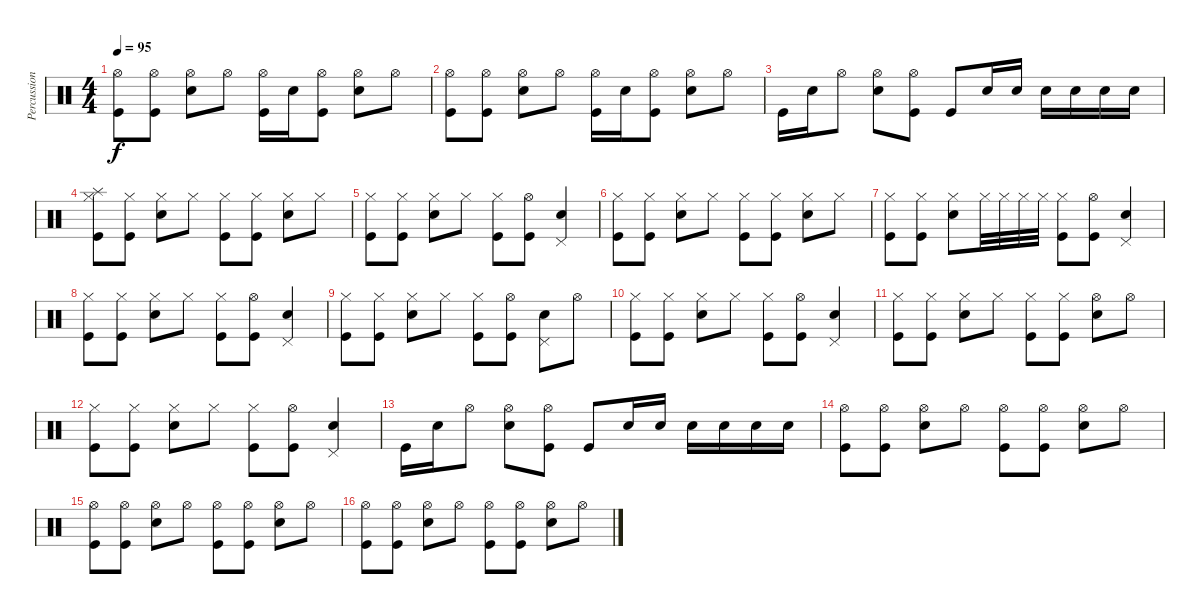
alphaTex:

\track ("Percussion" "Percussion") {instrument percussion}
\staff {score}
\articulation defaults
\ts (4 4)
\tempo 95
\clef neutral
\ks c
("Hi-Hat (open)" "Kick (hit)").8{dy f} ("Hi-Hat (open)" "Kick (hit)").8 ("Hi-Hat (open)" "Snare (hit) 2").8 "Hi-Hat (open)".8 ("Hi-Hat (open)" "Kick (hit)").16 "Snare (hit) 2".16 ("Hi-Hat (open)" "Kick (hit)").8 ("Hi-Hat (open)" "Snare (hit) 2").8 "Hi-Hat (open)".8 |
("Hi-Hat (open)" "Kick (hit)").8 ("Hi-Hat (open)" "Kick (hit)").8 ("Hi-Hat (open)" "Snare (hit) 2").8 "Hi-Hat (open)".8 ("Hi-Hat (open)" "Kick (hit)").16 "Snare (hit) 2".16 ("Hi-Hat (open)" "Kick (hit)").8 ("Hi-Hat (open)" "Snare (hit) 2").8 "Hi-Hat (open)".8 |
"Kick (hit)".16 "Snare (hit) 2".16 "Hi-Hat (open)".8 ("Hi-Hat (open)" "Snare (hit) 2").8 ("Hi-Hat (open)" "Kick (hit)").8 "Kick (hit)".8 "Snare (hit) 2".16 "Snare (hit) 2".16 "Snare (hit) 2".16 "Snare (hit) 2".16 "Snare (hit) 2".16 "Snare (hit) 2".16 |
("Splash (hit)" "Hi-Hat (closed)" "Kick (hit)").8 ("Hi-Hat (closed)" "Kick (hit)").8 ("Hi-Hat (closed)" "Snare (hit) 2").8 "Hi-Hat (closed)".8 ("Hi-Hat (closed)" "Kick (hit)").8 ("Hi-Hat (closed)" "Kick (hit)").8 ("Hi-Hat (closed)" "Snare (hit) 2").8 "Hi-Hat (closed)".8 |
("Hi-Hat (closed)" "Kick (hit)").8 ("Hi-Hat (closed)" "Kick (hit)").8 ("Hi-Hat (closed)" "Snare (hit) 2").8 "Hi-Hat (closed)".8 ("Hi-Hat (closed)" "Kick (hit)").8 ("Hi-Hat (open)" "Kick (hit)").8 ("Pedal Hi-Hat (hit)" "Snare (hit) 2").4 |
("Hi-Hat (closed)" "Kick (hit)").8 ("Hi-Hat (closed)" "Kick (hit)").8 ("Hi-Hat (closed)" "Snare (hit) 2").8 "Hi-Hat (closed)".8 ("Hi-Hat (closed)" "Kick (hit)").8 ("Hi-Hat (closed)" "Kick (hit)").8 ("Hi-Hat (closed)" "Snare (hit) 2").8 "Hi-Hat (closed)".8 |
("Hi-Hat (closed)" "Kick (hit)").8 ("Hi-Hat (closed)" "Kick (hit)").8 ("Hi-Hat (closed)" "Snare (hit) 2").8 "Hi-Hat (closed)".32 "Hi-Hat (closed)".32 "Hi-Hat (closed)".32 "Hi-Hat (closed)".32 ("Hi-Hat (closed)" "Kick (hit)").8 ("Hi-Hat (open)" "Kick (hit)").8 ("Pedal Hi-Hat (hit)" "Snare (hit) 2").4 |
("Hi-Hat (closed)" "Kick (hit)").8 ("Hi-Hat (closed)" "Kick (hit)").8 ("Hi-Hat (closed)" "Snare (hit) 2").8 "Hi-Hat (closed)".8 ("Hi-Hat (closed)" "Kick (hit)").8 ("Hi-Hat (open)" "Kick (hit)").8 ("Pedal Hi-Hat (hit)" "Snare (hit) 2").4 |
("Hi-Hat (closed)" "Kick (hit)").8 ("Hi-Hat (closed)" "Kick (hit)").8 ("Hi-Hat (closed)" "Snare (hit) 2").8 "Hi-Hat (closed)".8 ("Hi-Hat (closed)" "Kick (hit)").8 ("Hi-Hat (open)" "Kick (hit)").8 ("Pedal Hi-Hat (hit)" "Snare (hit) 2").8 "Hi-Hat (open)".8 |
("Hi-Hat (closed)" "Kick (hit)").8 ("Hi-Hat (closed)" "Kick (hit)").8 ("Hi-Hat (closed)" "Snare (hit) 2").8 "Hi-Hat (closed)".8 ("Hi-Hat (closed)" "Kick (hit)").8 ("Hi-Hat (open)" "Kick (hit)").8 ("Pedal Hi-Hat (hit)" "Snare (hit) 2").4 |
("Hi-Hat (closed)" "Kick (hit)").8 ("Hi-Hat (closed)" "Kick (hit)").8 ("Hi-Hat (closed)" "Snare (hit) 2").8 "Hi-Hat (closed)".8 ("Hi-Hat (closed)" "Kick (hit)").8 ("Hi-Hat (closed)" "Kick (hit)").8 ("Hi-Hat (open)" "Snare (hit) 2").8 "Hi-Hat (open)".8 |
("Hi-Hat (closed)" "Kick (hit)").8 ("Hi-Hat (closed)" "Kick (hit)").8 ("Hi-Hat (closed)" "Snare (hit) 2").8 "Hi-Hat (closed)".8 ("Hi-Hat (closed)" "Kick (hit)").8 ("Hi-Hat (open)" "Kick (hit)").8 ("Pedal Hi-Hat (hit)" "Snare (hit) 2").4 |
"Kick (hit)".16 "Snare (hit) 2".16 "Hi-Hat (open)".8 ("Hi-Hat (open)" "Snare (hit) 2").8 ("Hi-Hat (open)" "Kick (hit)").8 "Kick (hit)".8 "Snare (hit) 2".16 "Snare (hit) 2".16 "Snare (hit) 2".16 "Snare (hit) 2".16 "Snare (hit) 2".16 "Snare (hit) 2".16 |
("Hi-Hat (open)" "Kick (hit)").8 ("Hi-Hat (open)" "Kick (hit)").8 ("Hi-Hat (open)" "Snare (hit) 2").8 "Hi-Hat (open)".8 ("Hi-Hat (open)" "Kick (hit)").8 ("Hi-Hat (open)" "Kick (hit)").8 ("Hi-Hat (open)" "Snare (hit) 2").8 "Hi-Hat (open)".8 |
("Hi-Hat (open)" "Kick (hit)").8 ("Hi-Hat (open)" "Kick (hit)").8 ("Hi-Hat (open)" "Snare (hit) 2").8 "Hi-Hat (open)".8 ("Hi-Hat (open)" "Kick (hit)").8 ("Hi-Hat (open)" "Kick (hit)").8 ("Hi-Hat (open)" "Snare (hit) 2").8 "Hi-Hat (open)".8 |
("Hi-Hat (open)" "Kick (hit)").8 ("Hi-Hat (open)" "Kick (hit)").8 ("Hi-Hat (open)" "Snare (hit) 2").8 "Hi-Hat (open)".8 ("Hi-Hat (open)" "Kick (hit)").8 ("Hi-Hat (open)" "Kick (hit)").8 ("Hi-Hat (open)" "Snare (hit) 2").8 "Hi-Hat (open)".8
